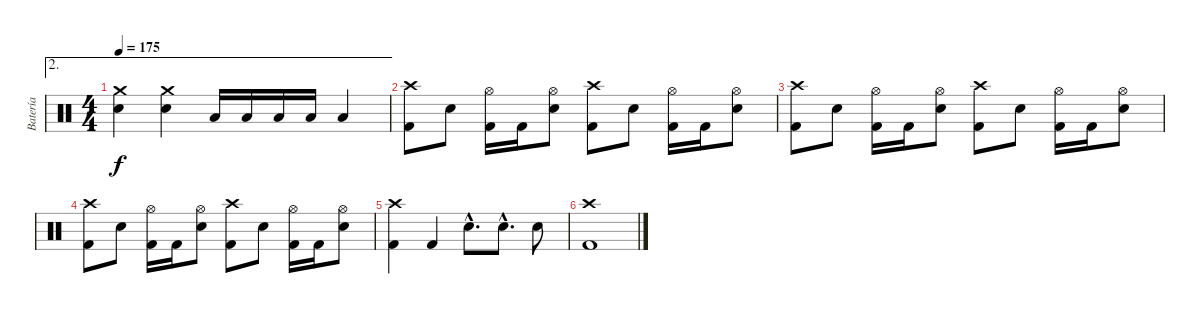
\track ("Batería" "Batería") {instrument percussion}
\staff {score}
\articulation defaults
\ae 2
\ts (4 4)
\tempo 175
\clef neutral
\ks c
("Crash medium (hit)" "Electric Snare (hit)").4{dy f} ("Crash medium (hit)" "Electric Snare (hit)").4 "Low Tom (hit)".16 "Low Tom (hit)".16 "Low Tom (hit)".16 "Low Tom (hit)".16 "Low Tom (hit)".4 |
("Crash high (hit)" "Kick (hit) 2").8 "Electric Snare (hit)".8 ("Hi-Hat (open)" "Kick (hit) 2").16 "Kick (hit) 2".16 ("Hi-Hat (open)" "Electric Snare (hit)").8 ("Crash high (hit)" "Kick (hit) 2").8 "Electric Snare (hit)".8 ("Hi-Hat (open)" "Kick (hit) 2").16 "Kick (hit) 2".16 ("Hi-Hat (open)" "Electric Snare (hit)").8 |
("Crash high (hit)" "Kick (hit) 2").8 "Electric Snare (hit)".8 ("Hi-Hat (open)" "Kick (hit) 2").16 "Kick (hit) 2".16 ("Hi-Hat (open)" "Electric Snare (hit)").8 ("Crash high (hit)" "Kick (hit) 2").8 "Electric Snare (hit)".8 ("Hi-Hat (open)" "Kick (hit) 2").16 "Kick (hit) 2".16 ("Hi-Hat (open)" "Electric Snare (hit)").8 |
("Crash high (hit)" "Kick (hit) 2").8 "Electric Snare (hit)".8 ("Hi-Hat (open)" "Kick (hit) 2").16 "Kick (hit) 2".16 ("Hi-Hat (open)" "Electric Snare (hit)").8 ("Crash high (hit)" "Kick (hit) 2").8 "Electric Snare (hit)".8 ("Hi-Hat (open)" "Kick (hit) 2").16 "Kick (hit) 2".16 ("Hi-Hat (open)" "Electric Snare (hit)").8 |
("Crash high (hit)" "Kick (hit) 2").4 "Kick (hit) 2".4 "Electric Snare (hit)"{hac}.8{d} "Electric Snare (hit)"{hac}.8{d} "Electric Snare (hit)".8 |
("Crash high (hit)" "Kick (hit) 2").1
